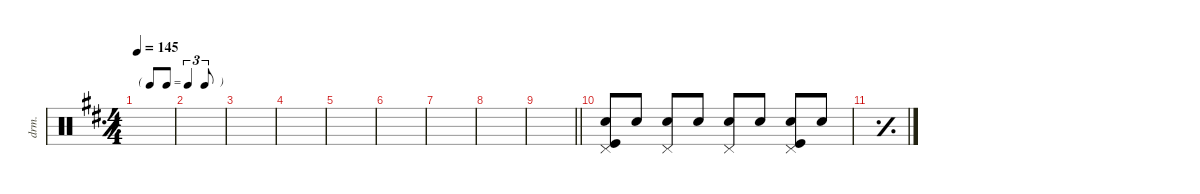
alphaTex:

\defaultSystemsLayout 4
\hideDynamics
\bracketExtendMode nobrackets
\otherSystemsTrackNameOrientation horizontal
\track ("Drumkit" "drm.") {instrument percussion}
\staff {score}
\articulation defaults
\ts (4 4)
\tf triplet8th
\tempo 145
\clef neutral
\simile simple
\ks d
|
|
|
|
|
|
|
|
\barLineRight lightlight
|
("Snare (hit) 2" "Pedal Hi-Hat (hit)" "Kick (hit)").8 "Snare (hit) 2".8 ("Snare (hit) 2" "Pedal Hi-Hat (hit)").8{dy f} "Snare (hit) 2".8{dy pp} ("Snare (hit) 2" "Pedal Hi-Hat (hit)").8 "Snare (hit) 2".8 ("Snare (hit) 2" "Pedal Hi-Hat (hit)" "Kick (hit)").8{dy f} "Snare (hit) 2".8{dy pp} |
\simile simple
